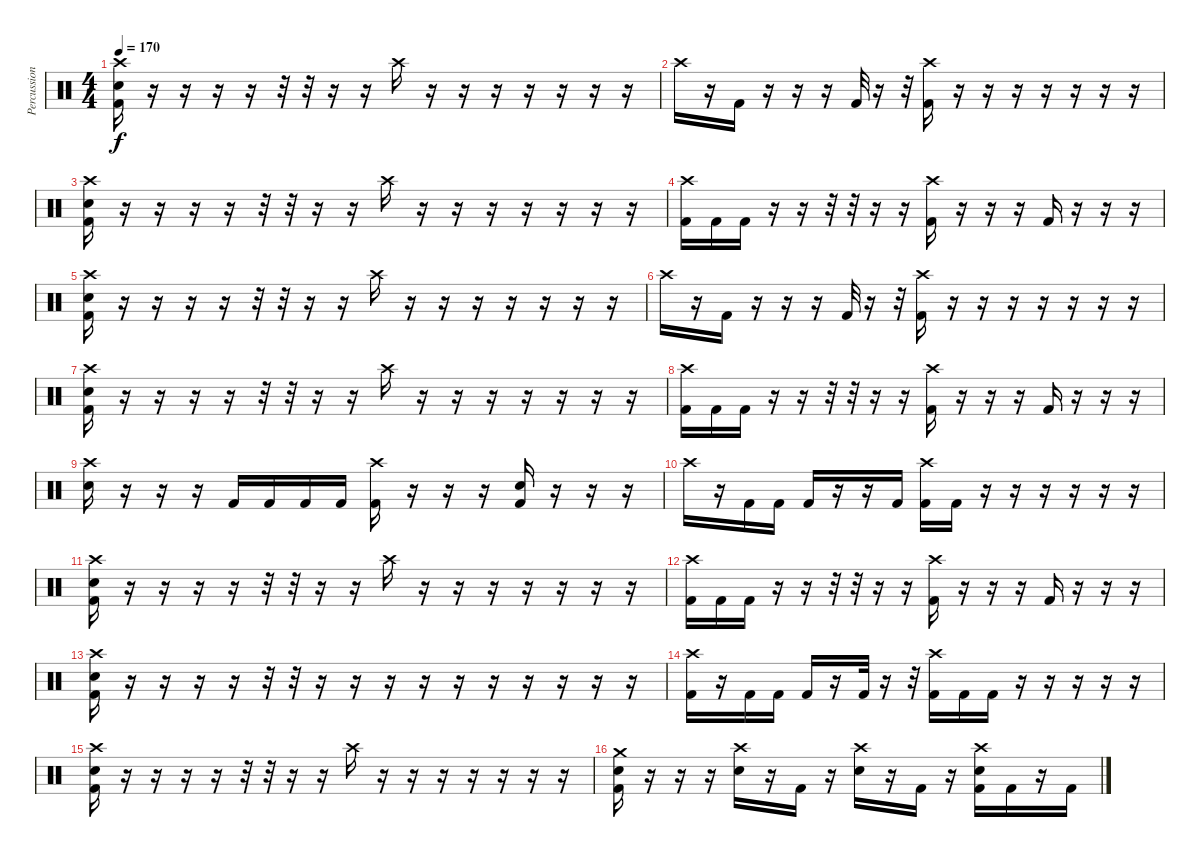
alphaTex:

\track ("Percussion" "Percussion") {instrument percussion}
\staff {score}
\articulation defaults
\ts (4 4)
\tempo 170
\clef neutral
\ks c
("Crash high (hit)" "Snare (hit) 2" "Kick (hit) 2").16{dy f} r.16 r.16 r.16 r.16 r.32 r.32 r.16 r.16 "Crash high (hit)".16 r.16 r.16 r.16 r.16 r.16 r.16 r.16 |
"Crash high (hit)".16 r.16 "Kick (hit) 2".16 r.16 r.16 r.16 "Kick (hit) 2".32 r.16 r.32 ("Crash high (hit)" "Kick (hit) 2").16 r.16 r.16 r.16 r.16 r.16 r.16 r.16 |
("Crash high (hit)" "Snare (hit) 2" "Kick (hit) 2").16 r.16 r.16 r.16 r.16 r.32 r.32 r.16 r.16 "Crash high (hit)".16 r.16 r.16 r.16 r.16 r.16 r.16 r.16 |
("Crash high (hit)" "Kick (hit) 2").16 "Kick (hit) 2".16 "Kick (hit) 2".16 r.16 r.16 r.32 r.32 r.16 r.16 ("Crash high (hit)" "Kick (hit) 2").16 r.16 r.16 r.16 "Kick (hit) 2".16 r.16 r.16 r.16 |
("Crash high (hit)" "Snare (hit) 2" "Kick (hit) 2").16 r.16 r.16 r.16 r.16 r.32 r.32 r.16 r.16 "Crash high (hit)".16 r.16 r.16 r.16 r.16 r.16 r.16 r.16 |
"Crash high (hit)".16 r.16 "Kick (hit) 2".16 r.16 r.16 r.16 "Kick (hit) 2".32 r.16 r.32 ("Crash high (hit)" "Kick (hit) 2").16 r.16 r.16 r.16 r.16 r.16 r.16 r.16 |
("Crash high (hit)" "Snare (hit) 2" "Kick (hit) 2").16 r.16 r.16 r.16 r.16 r.32 r.32 r.16 r.16 "Crash high (hit)".16 r.16 r.16 r.16 r.16 r.16 r.16 r.16 |
("Crash high (hit)" "Kick (hit) 2").16 "Kick (hit) 2".16 "Kick (hit) 2".16 r.16 r.16 r.32 r.32 r.16 r.16 ("Crash high (hit)" "Kick (hit) 2").16 r.16 r.16 r.16 "Kick (hit) 2".16 r.16 r.16 r.16 |
("Crash high (hit)" "Snare (hit) 2").16 r.16 r.16 r.16 "Kick (hit) 2".16 "Kick (hit) 2".16 "Kick (hit) 2".16 "Kick (hit) 2".16 ("Crash high (hit)" "Kick (hit) 2").16 r.16 r.16 r.16 ("Snare (hit) 2" "Kick (hit) 2").16 r.16 r.16 r.16 |
"Crash high (hit)".16 r.16 "Kick (hit) 2".16 "Kick (hit) 2".16 "Kick (hit) 2".16 r.16 r.16 "Kick (hit) 2".16 ("Crash high (hit)" "Kick (hit) 2").16 "Kick (hit) 2".16 r.16 r.16 r.16 r.16 r.16 r.16 |
("Crash high (hit)" "Snare (hit) 2" "Kick (hit) 2").16 r.16 r.16 r.16 r.16 r.32 r.32 r.16 r.16 "Crash high (hit)".16 r.16 r.16 r.16 r.16 r.16 r.16 r.16 |
("Crash high (hit)" "Kick (hit) 2").16 "Kick (hit) 2".16 "Kick (hit) 2".16 r.16 r.16 r.32 r.32 r.16 r.16 ("Crash high (hit)" "Kick (hit) 2").16 r.16 r.16 r.16 "Kick (hit) 2".16 r.16 r.16 r.16 |
("Crash high (hit)" "Snare (hit) 2" "Kick (hit) 2").16 r.16 r.16 r.16 r.16 r.32 r.32 r.16 r.16 r.16 r.16 r.16 r.16 r.16 r.16 r.16 r.16 |
("Crash high (hit)" "Kick (hit) 2").16 r.16 "Kick (hit) 2".16 "Kick (hit) 2".16 "Kick (hit) 2".16 r.16 "Kick (hit) 2".32 r.16 r.32 ("Crash high (hit)" "Kick (hit) 2").16 "Kick (hit) 2".16 "Kick (hit) 2".16 r.16 r.16 r.16 r.16 r.16 |
("Crash high (hit)" "Snare (hit) 2" "Kick (hit) 2").16 r.16 r.16 r.16 r.16 r.32 r.32 r.16 r.16 "Crash high (hit)".16 r.16 r.16 r.16 r.16 r.16 r.16 r.16 |
("Crash medium (hit)" "Snare (hit) 2" "Kick (hit) 2").16 r.16 r.16 r.16 ("Crash high (hit)" "Snare (hit) 2").16 r.16 "Kick (hit) 2".16 r.16 ("Crash high (hit)" "Snare (hit) 2").16 r.16 "Kick (hit) 2".16 r.16 ("Crash high (hit)" "Snare (hit) 2" "Kick (hit) 2").16 "Kick (hit) 2".16 r.16 "Kick (hit) 2".16
